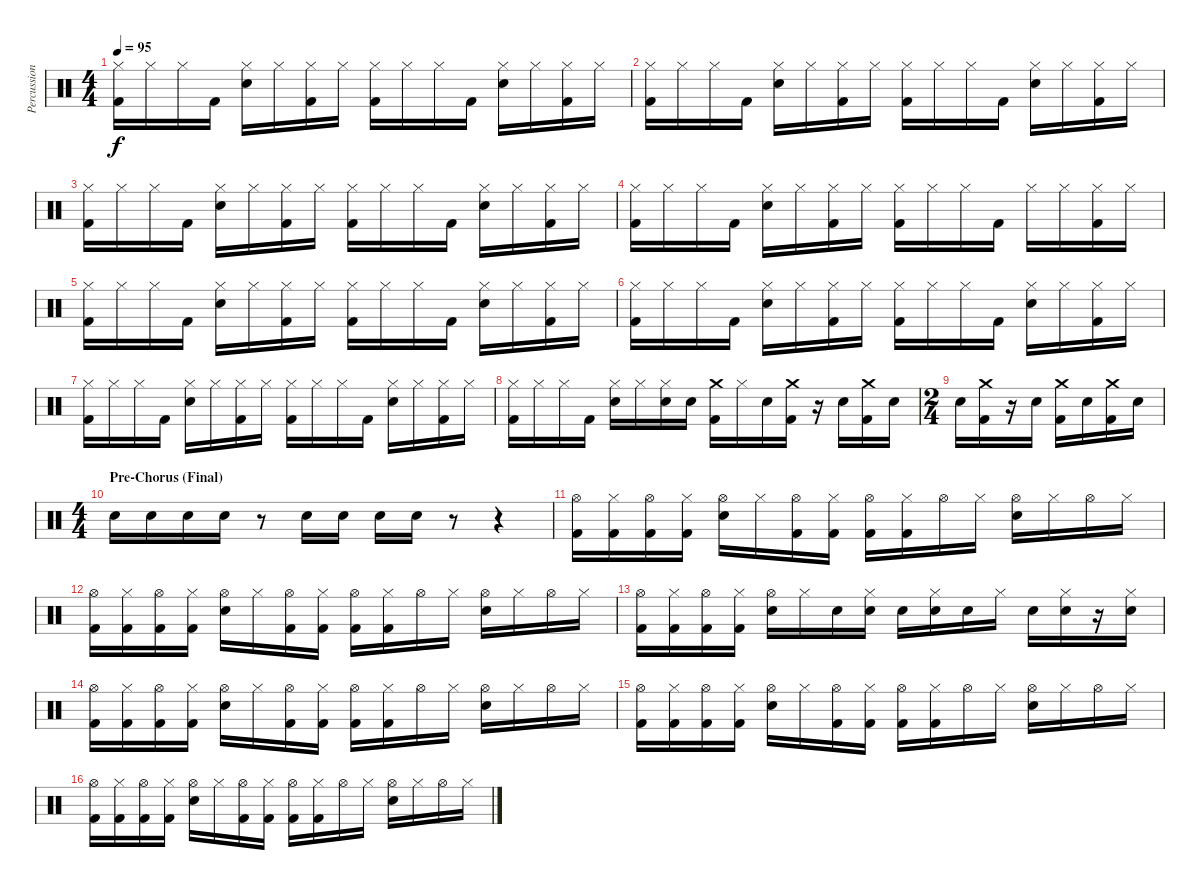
\track ("Percussion" "Percussion") {instrument percussion}
\staff {score}
\articulation defaults
\ts (4 4)
\tempo 95
\clef neutral
\ks c
("Hi-Hat (closed)" "Kick (hit) 2").16{dy f} "Hi-Hat (closed)"{x}.16 "Hi-Hat (closed)".16 "Kick (hit) 2".16 ("Hi-Hat (closed)" "Snare (hit) 2").16 "Hi-Hat (closed)"{x}.16 ("Hi-Hat (closed)" "Kick (hit) 2").16 "Hi-Hat (closed)"{x}.16 ("Hi-Hat (closed)" "Kick (hit) 2").16 "Hi-Hat (closed)"{x}.16 "Hi-Hat (closed)".16 "Kick (hit) 2".16 ("Hi-Hat (closed)" "Snare (hit) 2").16 "Hi-Hat (closed)"{x}.16 ("Hi-Hat (closed)" "Kick (hit) 2").16 "Hi-Hat (closed)"{x}.16 |
("Hi-Hat (closed)" "Kick (hit) 2").16 "Hi-Hat (closed)"{x}.16 "Hi-Hat (closed)".16 "Kick (hit) 2".16 ("Hi-Hat (closed)" "Snare (hit) 2").16 "Hi-Hat (closed)"{x}.16 ("Hi-Hat (closed)" "Kick (hit) 2").16 "Hi-Hat (closed)"{x}.16 ("Hi-Hat (closed)" "Kick (hit) 2").16 "Hi-Hat (closed)"{x}.16 "Hi-Hat (closed)".16 "Kick (hit) 2".16 ("Hi-Hat (closed)" "Snare (hit) 2").16 "Hi-Hat (closed)"{x}.16 ("Hi-Hat (closed)" "Kick (hit) 2").16 "Hi-Hat (closed)"{x}.16 |
("Hi-Hat (closed)" "Kick (hit) 2").16 "Hi-Hat (closed)"{x}.16 "Hi-Hat (closed)".16 "Kick (hit) 2".16 ("Hi-Hat (closed)" "Snare (hit) 2").16 "Hi-Hat (closed)"{x}.16 ("Hi-Hat (closed)" "Kick (hit) 2").16 "Hi-Hat (closed)"{x}.16 ("Hi-Hat (closed)" "Kick (hit) 2").16 "Hi-Hat (closed)"{x}.16 "Hi-Hat (closed)".16 "Kick (hit) 2".16 ("Hi-Hat (closed)" "Snare (hit) 2").16 "Hi-Hat (closed)"{x}.16 ("Hi-Hat (closed)" "Kick (hit) 2").16 "Hi-Hat (closed)"{x}.16 |
("Hi-Hat (closed)" "Kick (hit) 2").16 "Hi-Hat (closed)"{x}.16 "Hi-Hat (closed)".16 "Kick (hit) 2".16 ("Hi-Hat (closed)" "Snare (hit) 2").16 "Hi-Hat (closed)"{x}.16 ("Hi-Hat (closed)" "Kick (hit) 2").16 "Hi-Hat (closed)"{x}.16 ("Hi-Hat (closed)" "Kick (hit) 2").16 "Hi-Hat (closed)"{x}.16 "Hi-Hat (closed)".16 "Kick (hit) 2".16 "Hi-Hat (closed)".16 "Hi-Hat (closed)"{x}.16 ("Hi-Hat (closed)" "Kick (hit) 2").16 "Hi-Hat (closed)"{x}.16 |
("Hi-Hat (closed)" "Kick (hit) 2").16 "Hi-Hat (closed)"{x}.16 "Hi-Hat (closed)".16 "Kick (hit) 2".16 ("Hi-Hat (closed)" "Snare (hit) 2").16 "Hi-Hat (closed)"{x}.16 ("Hi-Hat (closed)" "Kick (hit) 2").16 "Hi-Hat (closed)"{x}.16 ("Hi-Hat (closed)" "Kick (hit) 2").16 "Hi-Hat (closed)"{x}.16 "Hi-Hat (closed)".16 "Kick (hit) 2".16 ("Hi-Hat (closed)" "Snare (hit) 2").16 "Hi-Hat (closed)"{x}.16 ("Hi-Hat (closed)" "Kick (hit) 2").16 "Hi-Hat (closed)"{x}.16 |
("Hi-Hat (closed)" "Kick (hit) 2").16 "Hi-Hat (closed)"{x}.16 "Hi-Hat (closed)".16 "Kick (hit) 2".16 ("Hi-Hat (closed)" "Snare (hit) 2").16 "Hi-Hat (closed)"{x}.16 ("Hi-Hat (closed)" "Kick (hit) 2").16 "Hi-Hat (closed)"{x}.16 ("Hi-Hat (closed)" "Kick (hit) 2").16 "Hi-Hat (closed)"{x}.16 "Hi-Hat (closed)".16 "Kick (hit) 2".16 ("Hi-Hat (closed)" "Snare (hit) 2").16 "Hi-Hat (closed)"{x}.16 ("Hi-Hat (closed)" "Kick (hit) 2").16 "Hi-Hat (closed)"{x}.16 |
("Hi-Hat (closed)" "Kick (hit) 2").16 "Hi-Hat (closed)"{x}.16 "Hi-Hat (closed)".16 "Kick (hit) 2".16 ("Hi-Hat (closed)" "Snare (hit) 2").16 "Hi-Hat (closed)"{x}.16 ("Hi-Hat (closed)" "Kick (hit) 2").16 "Hi-Hat (closed)"{x}.16 ("Hi-Hat (closed)" "Kick (hit) 2").16 "Hi-Hat (closed)"{x}.16 "Hi-Hat (closed)".16 "Kick (hit) 2".16 ("Hi-Hat (closed)" "Snare (hit) 2").16 "Hi-Hat (closed)"{x}.16 ("Hi-Hat (closed)" "Kick (hit) 2").16 "Hi-Hat (closed)"{x}.16 |
("Hi-Hat (closed)" "Kick (hit) 2").16 "Hi-Hat (closed)"{x}.16 "Hi-Hat (closed)".16 "Kick (hit) 2".16 ("Hi-Hat (closed)" "Snare (hit) 2").16 "Hi-Hat (closed)"{x}.16 ("Hi-Hat (closed)" "Snare (hit) 2").16 "Snare (hit) 2".16 ("Crash medium (hit)" "Kick (hit) 2").16 "Hi-Hat (closed)"{x}.16 "Snare (hit) 2".16 ("Crash medium (hit)" "Kick (hit) 2").16 r.16 "Snare (hit) 2".16 ("Crash medium (hit)" "Kick (hit) 2").16 "Snare (hit) 2"{x}.16 |
\ts (2 4)
"Snare (hit) 2".16 ("Crash medium (hit)" "Kick (hit) 2").16 r.16 "Snare (hit) 2".16 ("Kick (hit) 2" "Crash medium (hit)").16 "Snare (hit)"{x}.16 ("Kick (hit) 2" "Crash medium (hit)").16 "Snare (hit)"{x}.16 |
\ts (4 4)
\section ("" "Pre-Chorus (Final)")
"Snare (hit) 2".16 "Snare (hit) 2".16 "Snare (hit) 2".16 "Snare (hit) 2".16 r.8 "Snare (hit) 2".16 "Snare (hit) 2".16 "Snare (hit) 2".16 "Snare (hit) 2".16 r.8 r.4 |
("Kick (hit) 2" "Hi-Hat (open)").16 ("Kick (hit) 2" "Hi-Hat (closed)"{x}).16 ("Kick (hit) 2" "Hi-Hat (open)").16 ("Kick (hit) 2" "Hi-Hat (closed)"{x}).16 ("Snare (hit) 2" "Hi-Hat (open)").16 "Hi-Hat (closed)"{x}.16 ("Kick (hit) 2" "Hi-Hat (open)").16 ("Kick (hit) 2" "Hi-Hat (closed)"{x}).16 ("Kick (hit) 2" "Hi-Hat (open)").16 ("Kick (hit) 2" "Hi-Hat (closed)"{x}).16 "Hi-Hat (open)".16 "Hi-Hat (closed)"{x}.16 ("Snare (hit) 2" "Hi-Hat (open)").16 "Hi-Hat (closed)"{x}.16 "Hi-Hat (open)".16 "Hi-Hat (closed)"{x}.16 |
("Kick (hit) 2" "Hi-Hat (open)").16 ("Kick (hit) 2" "Hi-Hat (closed)"{x}).16 ("Kick (hit) 2" "Hi-Hat (open)").16 ("Kick (hit) 2" "Hi-Hat (closed)"{x}).16 ("Snare (hit) 2" "Hi-Hat (open)").16 "Hi-Hat (closed)"{x}.16 ("Kick (hit) 2" "Hi-Hat (open)").16 ("Kick (hit) 2" "Hi-Hat (closed)"{x}).16 ("Kick (hit) 2" "Hi-Hat (open)").16 ("Kick (hit) 2" "Hi-Hat (closed)"{x}).16 "Hi-Hat (open)".16 "Hi-Hat (closed)"{x}.16 ("Snare (hit) 2" "Hi-Hat (open)").16 "Hi-Hat (closed)"{x}.16 "Hi-Hat (open)".16 "Hi-Hat (closed)"{x}.16 |
("Kick (hit) 2" "Hi-Hat (open)").16 ("Kick (hit) 2" "Hi-Hat (closed)"{x}).16 ("Kick (hit) 2" "Hi-Hat (open)").16 ("Kick (hit) 2" "Hi-Hat (closed)"{x}).16 ("Snare (hit) 2" "Hi-Hat (open)").16 "Hi-Hat (closed)"{x}.16 "Snare (hit) 2".16 ("Snare (hit) 2" "Hi-Hat (closed)"{x}).16 "Snare (hit) 2".16 ("Snare (hit) 2" "Hi-Hat (closed)"{x}).16 "Snare (hit) 2".16 "Hi-Hat (closed)"{x}.16 "Snare (hit) 2".16 ("Snare (hit) 2" "Hi-Hat (closed)"{x}).16 r.16 ("Snare (hit) 2" "Hi-Hat (closed)"{x}).16 |
("Kick (hit) 2" "Hi-Hat (open)").16 ("Kick (hit) 2" "Hi-Hat (closed)"{x}).16 ("Kick (hit) 2" "Hi-Hat (open)").16 ("Kick (hit) 2" "Hi-Hat (closed)"{x}).16 ("Snare (hit) 2" "Hi-Hat (open)").16 "Hi-Hat (closed)"{x}.16 ("Kick (hit) 2" "Hi-Hat (open)").16 ("Kick (hit) 2" "Hi-Hat (closed)"{x}).16 ("Kick (hit) 2" "Hi-Hat (open)").16 ("Kick (hit) 2" "Hi-Hat (closed)"{x}).16 "Hi-Hat (open)".16 "Hi-Hat (closed)"{x}.16 ("Snare (hit) 2" "Hi-Hat (open)").16 "Hi-Hat (closed)"{x}.16 "Hi-Hat (open)".16 "Hi-Hat (closed)"{x}.16 |
("Kick (hit) 2" "Hi-Hat (open)").16 ("Kick (hit) 2" "Hi-Hat (closed)"{x}).16 ("Kick (hit) 2" "Hi-Hat (open)").16 ("Kick (hit) 2" "Hi-Hat (closed)"{x}).16 ("Snare (hit) 2" "Hi-Hat (open)").16 "Hi-Hat (closed)"{x}.16 ("Kick (hit) 2" "Hi-Hat (open)").16 ("Kick (hit) 2" "Hi-Hat (closed)"{x}).16 ("Kick (hit) 2" "Hi-Hat (open)").16 ("Kick (hit) 2" "Hi-Hat (closed)"{x}).16 "Hi-Hat (open)".16 "Hi-Hat (closed)"{x}.16 ("Snare (hit) 2" "Hi-Hat (open)").16 "Hi-Hat (closed)"{x}.16 "Hi-Hat (open)".16 "Hi-Hat (closed)"{x}.16 |
("Kick (hit) 2" "Hi-Hat (open)").16 ("Kick (hit) 2" "Hi-Hat (closed)"{x}).16 ("Kick (hit) 2" "Hi-Hat (open)").16 ("Kick (hit) 2" "Hi-Hat (closed)"{x}).16 ("Snare (hit) 2" "Hi-Hat (open)").16 "Hi-Hat (closed)"{x}.16 ("Kick (hit) 2" "Hi-Hat (open)").16 ("Kick (hit) 2" "Hi-Hat (closed)"{x}).16 ("Kick (hit) 2" "Hi-Hat (open)").16 ("Kick (hit) 2" "Hi-Hat (closed)"{x}).16 "Hi-Hat (open)".16 "Hi-Hat (closed)"{x}.16 ("Snare (hit) 2" "Hi-Hat (open)").16 "Hi-Hat (closed)"{x}.16 "Hi-Hat (open)".16 "Hi-Hat (closed)"{x}.16
